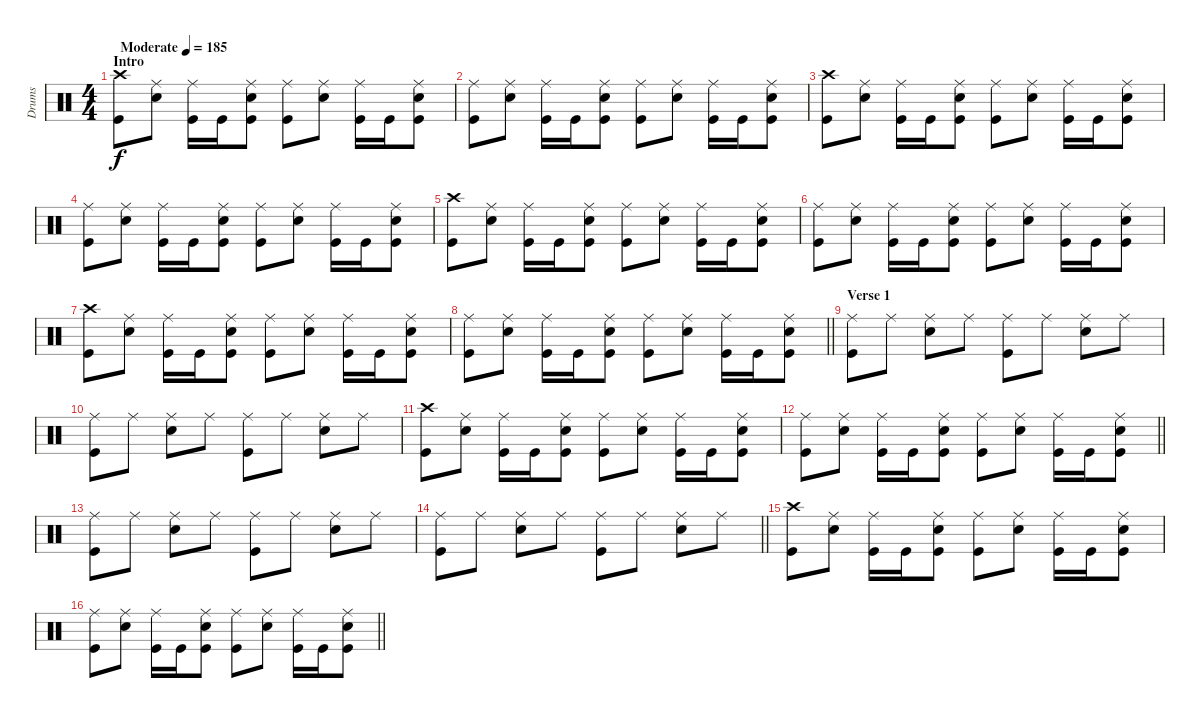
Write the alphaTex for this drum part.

\track ("Drums" "Drums") {instrument percussion}
\staff {score}
\articulation defaults
\ts (4 4)
\section ("" "Intro")
\tempo (185 "Moderate")
\clef neutral
\ks c
("Kick (hit)" "Crash high (hit)").8{dy f} ("Snare (hit) 2" "Ride (middle)").8 ("Kick (hit)" "Ride (middle)").16 "Kick (hit)".16 ("Kick (hit)" "Ride (middle)" "Snare (hit) 2").8 ("Kick (hit)" "Ride (middle)").8 ("Snare (hit) 2" "Ride (middle)").8 ("Kick (hit)" "Ride (middle)").16 "Kick (hit)".16 ("Kick (hit)" "Ride (middle)" "Snare (hit) 2").8 |
("Kick (hit)" "Ride (middle)").8 ("Snare (hit) 2" "Ride (middle)").8 ("Kick (hit)" "Ride (middle)").16 "Kick (hit)".16 ("Kick (hit)" "Ride (middle)" "Snare (hit) 2").8 ("Kick (hit)" "Ride (middle)").8 ("Snare (hit) 2" "Ride (middle)").8 ("Kick (hit)" "Ride (middle)").16 "Kick (hit)".16 ("Kick (hit)" "Ride (middle)" "Snare (hit) 2").8 |
("Kick (hit)" "Crash high (hit)").8 ("Snare (hit) 2" "Ride (middle)").8 ("Kick (hit)" "Ride (middle)").16 "Kick (hit)".16 ("Kick (hit)" "Ride (middle)" "Snare (hit) 2").8 ("Kick (hit)" "Ride (middle)").8 ("Snare (hit) 2" "Ride (middle)").8 ("Kick (hit)" "Ride (middle)").16 "Kick (hit)".16 ("Kick (hit)" "Ride (middle)" "Snare (hit) 2").8 |
("Kick (hit)" "Ride (middle)").8 ("Snare (hit) 2" "Ride (middle)").8 ("Kick (hit)" "Ride (middle)").16 "Kick (hit)".16 ("Kick (hit)" "Ride (middle)" "Snare (hit) 2").8 ("Kick (hit)" "Ride (middle)").8 ("Snare (hit) 2" "Ride (middle)").8 ("Kick (hit)" "Ride (middle)").16 "Kick (hit)".16 ("Kick (hit)" "Ride (middle)" "Snare (hit) 2").8 |
("Kick (hit)" "Crash high (hit)").8 ("Snare (hit) 2" "Ride (middle)").8 ("Kick (hit)" "Ride (middle)").16 "Kick (hit)".16 ("Kick (hit)" "Ride (middle)" "Snare (hit) 2").8 ("Kick (hit)" "Ride (middle)").8 ("Snare (hit) 2" "Ride (middle)").8 ("Kick (hit)" "Ride (middle)").16 "Kick (hit)".16 ("Kick (hit)" "Ride (middle)" "Snare (hit) 2").8 |
("Kick (hit)" "Ride (middle)").8 ("Snare (hit) 2" "Ride (middle)").8 ("Kick (hit)" "Ride (middle)").16 "Kick (hit)".16 ("Kick (hit)" "Ride (middle)" "Snare (hit) 2").8 ("Kick (hit)" "Ride (middle)").8 ("Snare (hit) 2" "Ride (middle)").8 ("Kick (hit)" "Ride (middle)").16 "Kick (hit)".16 ("Kick (hit)" "Ride (middle)" "Snare (hit) 2").8 |
("Kick (hit)" "Crash high (hit)").8 ("Snare (hit) 2" "Ride (middle)").8 ("Kick (hit)" "Ride (middle)").16 "Kick (hit)".16 ("Kick (hit)" "Ride (middle)" "Snare (hit) 2").8 ("Kick (hit)" "Ride (middle)").8 ("Snare (hit) 2" "Ride (middle)").8 ("Kick (hit)" "Ride (middle)").16 "Kick (hit)".16 ("Kick (hit)" "Ride (middle)" "Snare (hit) 2").8 |
\barLineRight lightlight
("Kick (hit)" "Ride (middle)").8 ("Snare (hit) 2" "Ride (middle)").8 ("Kick (hit)" "Ride (middle)").16 "Kick (hit)".16 ("Kick (hit)" "Ride (middle)" "Snare (hit) 2").8 ("Kick (hit)" "Ride (middle)").8 ("Snare (hit) 2" "Ride (middle)").8 ("Kick (hit)" "Ride (middle)").16 "Kick (hit)".16 ("Kick (hit)" "Ride (middle)" "Snare (hit) 2").8 |
\section ("" "Verse 1")
("Kick (hit)" "Ride (middle)").8 "Ride (middle)".8 ("Ride (middle)" "Snare (hit) 2").8 "Ride (middle)".8 ("Ride (middle)" "Kick (hit)").8 "Ride (middle)".8 ("Ride (middle)" "Snare (hit) 2").8 "Ride (middle)".8 |
("Ride (middle)" "Kick (hit)").8 "Ride (middle)".8 ("Ride (middle)" "Snare (hit) 2").8 "Ride (middle)".8 ("Ride (middle)" "Kick (hit)").8 "Ride (middle)".8 ("Ride (middle)" "Snare (hit) 2").8 "Ride (middle)".8 |
("Kick (hit)" "Crash high (hit)").8 ("Snare (hit) 2" "Ride (middle)").8 ("Kick (hit)" "Ride (middle)").16 "Kick (hit)".16 ("Kick (hit)" "Ride (middle)" "Snare (hit) 2").8 ("Kick (hit)" "Ride (middle)").8 ("Snare (hit) 2" "Ride (middle)").8 ("Kick (hit)" "Ride (middle)").16 "Kick (hit)".16 ("Kick (hit)" "Ride (middle)" "Snare (hit) 2").8 |
\barLineRight lightlight
("Kick (hit)" "Ride (middle)").8 ("Snare (hit) 2" "Ride (middle)").8 ("Kick (hit)" "Ride (middle)").16 "Kick (hit)".16 ("Kick (hit)" "Ride (middle)" "Snare (hit) 2").8 ("Kick (hit)" "Ride (middle)").8 ("Snare (hit) 2" "Ride (middle)").8 ("Kick (hit)" "Ride (middle)").16 "Kick (hit)".16 ("Kick (hit)" "Ride (middle)" "Snare (hit) 2").8 |
("Kick (hit)" "Ride (middle)").8 "Ride (middle)".8 ("Ride (middle)" "Snare (hit) 2").8 "Ride (middle)".8 ("Ride (middle)" "Kick (hit)").8 "Ride (middle)".8 ("Ride (middle)" "Snare (hit) 2").8 "Ride (middle)".8 |
\barLineRight lightlight
("Ride (middle)" "Kick (hit)").8 "Ride (middle)".8 ("Ride (middle)" "Snare (hit) 2").8 "Ride (middle)".8 ("Ride (middle)" "Kick (hit)").8 "Ride (middle)".8 ("Ride (middle)" "Snare (hit) 2").8 "Ride (middle)".8 |
("Kick (hit)" "Crash high (hit)").8 ("Snare (hit) 2" "Ride (middle)").8 ("Kick (hit)" "Ride (middle)").16 "Kick (hit)".16 ("Kick (hit)" "Ride (middle)" "Snare (hit) 2").8 ("Kick (hit)" "Ride (middle)").8 ("Snare (hit) 2" "Ride (middle)").8 ("Kick (hit)" "Ride (middle)").16 "Kick (hit)".16 ("Kick (hit)" "Ride (middle)" "Snare (hit) 2").8 |
\barLineRight lightlight
("Kick (hit)" "Ride (middle)").8 ("Snare (hit) 2" "Ride (middle)").8 ("Kick (hit)" "Ride (middle)").16 "Kick (hit)".16 ("Kick (hit)" "Ride (middle)" "Snare (hit) 2").8 ("Kick (hit)" "Ride (middle)").8 ("Snare (hit) 2" "Ride (middle)").8 ("Kick (hit)" "Ride (middle)").16 "Kick (hit)".16 ("Kick (hit)" "Ride (middle)" "Snare (hit) 2").8
